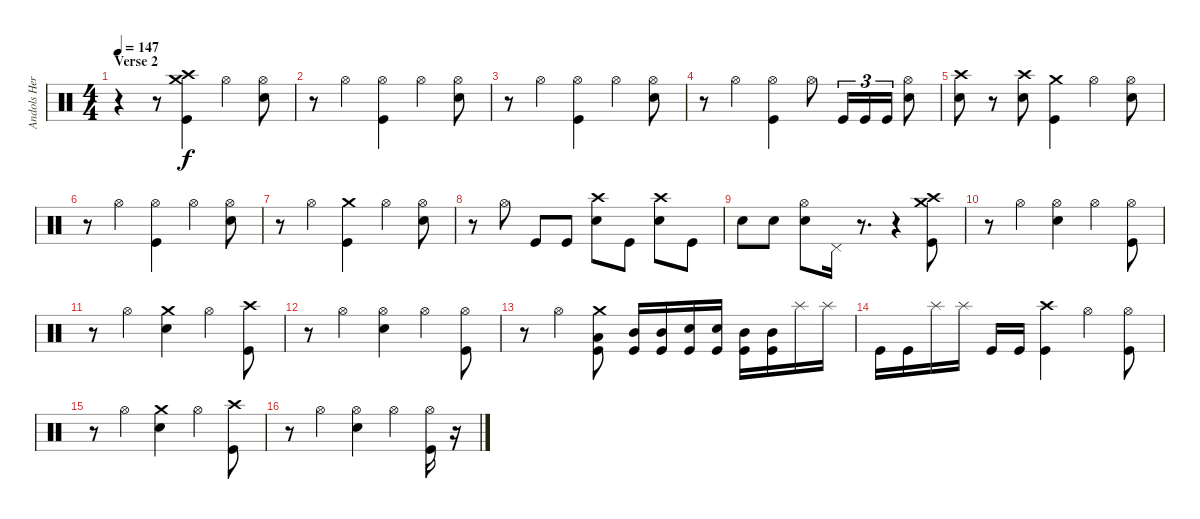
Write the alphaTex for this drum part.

\track ("Andols Herrick" "Andols Her") {instrument percussion}
\staff
\articulation defaults
\ts (4 4)
\section ("" "Verse 2")
\tempo 147
\clef neutral
\ks c
r.4{dy ppp} r.8 ("Crash medium (hit)" "Crash high (hit)" "Kick (hit)").4{dy f} "Hi-Hat (open)".4 ("Hi-Hat (open)" "Electric Snare (hit)").8 |
r.8 "Hi-Hat (open)".4 ("Hi-Hat (open)" "Kick (hit)").4 "Hi-Hat (open)".4 ("Hi-Hat (open)" "Electric Snare (hit)").8 |
r.8 "Hi-Hat (open)".4 ("Hi-Hat (open)" "Kick (hit)").4 "Hi-Hat (open)".4 ("Hi-Hat (open)" "Electric Snare (hit)").8 |
r.8 "Hi-Hat (open)".4 ("Hi-Hat (open)" "Kick (hit)").4 "Hi-Hat (open)".8 "Kick (hit)".16{tu (3 2)} "Kick (hit)".16{tu (3 2)} "Kick (hit)".16{tu (3 2)} ("Hi-Hat (open)" "Electric Snare (hit)").8 |
("Crash high (hit)" "Electric Snare (hit)").8 r.8 ("Crash high (hit)" "Electric Snare (hit)").8 ("Crash medium (hit)" "Kick (hit)").4 "Hi-Hat (open)".4 ("Hi-Hat (open)" "Electric Snare (hit)").8 |
r.8 "Hi-Hat (open)".4 ("Hi-Hat (open)" "Kick (hit)").4 "Hi-Hat (open)".4 ("Hi-Hat (open)" "Electric Snare (hit)").8 |
r.8 "Hi-Hat (open)".4 ("Crash medium (hit)" "Kick (hit)").4 "Hi-Hat (open)".4 ("Hi-Hat (open)" "Electric Snare (hit)").8 |
r.8 "Hi-Hat (open)".8 "Kick (hit)".8 "Kick (hit)".8 ("Crash high (hit)" "Electric Snare (hit)").8 "Kick (hit)".8 ("Crash high (hit)" "Electric Snare (hit)").8 "Kick (hit)".8 |
"Electric Snare (hit)".8 "Electric Snare (hit)".8 ("Hi-Hat (open)" "Electric Snare (hit)").8 "Pedal Hi-Hat (hit)".16 r.8{d} r.4 ("Crash medium (hit)" "Crash high (hit)" "Kick (hit)").8 |
r.8 "Hi-Hat (open)".4 ("Hi-Hat (open)" "Electric Snare (hit)").4 "Hi-Hat (open)".4 ("Hi-Hat (open)" "Kick (hit)").8 |
r.8 "Hi-Hat (open)".4 ("Crash medium (hit)" "Electric Snare (hit)").4 "Hi-Hat (open)".4 ("Crash high (hit)" "Kick (hit)").8 |
r.8 "Hi-Hat (open)".4 ("Hi-Hat (open)" "Electric Snare (hit)").4 "Hi-Hat (open)".4 ("Hi-Hat (open)" "Kick (hit)").8 |
r.8 "Hi-Hat (open)".4 ("Crash medium (hit)" "Low Floor Tom (hit)" "Kick (hit)").8 ("Mid Tom (hit)" "Kick (hit)").16 ("Mid Tom (hit)" "Kick (hit)").16 ("Electric Snare (hit)" "Kick (hit)").16 ("Electric Snare (hit)" "Kick (hit)").16 ("Mid Tom (hit)" "Kick (hit)").16 ("Mid Tom (hit)" "Kick (hit)").16 "Splash (hit)".16 "Splash (hit)".16 |
"Kick (hit)".16 "Kick (hit)".16 "Splash (hit)".16 "Splash (hit)".16 "Kick (hit)".16 "Kick (hit)".16 ("Crash high (hit)" "Kick (hit)").4 "Hi-Hat (open)".4 ("Hi-Hat (open)" "Kick (hit)").8 |
r.8 "Hi-Hat (open)".4 ("Crash medium (hit)" "Electric Snare (hit)").4 "Hi-Hat (open)".4 ("Crash high (hit)" "Kick (hit)").8 |
r.8 "Hi-Hat (open)".4 ("Hi-Hat (open)" "Electric Snare (hit)").4 "Hi-Hat (open)".4 ("Hi-Hat (open)" "Kick (hit)").16 r.16
